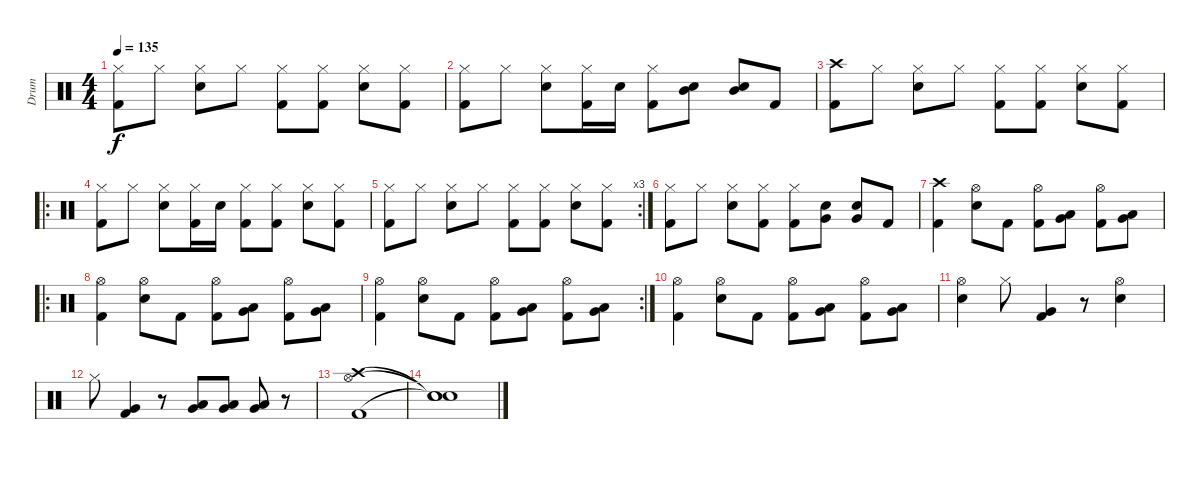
\track ("Drum" "Drum") {instrument percussion}
\staff {score}
\articulation defaults
\ts (4 4)
\tempo 135
\clef neutral
\ks c
("Hi-Hat (closed)" "Kick (hit) 2").8{dy f} "Hi-Hat (closed)".8 ("Hi-Hat (closed)" "Snare (hit) 2").8 "Hi-Hat (closed)".8 ("Hi-Hat (closed)" "Kick (hit) 2").8 ("Hi-Hat (closed)" "Kick (hit) 2").8 ("Hi-Hat (closed)" "Snare (hit) 2").8 ("Hi-Hat (closed)" "Kick (hit) 2").8 |
("Hi-Hat (closed)" "Kick (hit) 2").8 "Hi-Hat (closed)".8 ("Hi-Hat (closed)" "Snare (hit) 2").8 ("Hi-Hat (closed)" "Kick (hit) 2").16 "Snare (hit) 2".16 ("Hi-Hat (closed)" "Kick (hit) 2").8 ("Mid Tom (hit)" "Snare (hit) 2").8 ("Mid Tom (hit)" "Snare (hit) 2").8 "Kick (hit) 2".8 |
("Crash high (hit)" "Kick (hit) 2").8 "Hi-Hat (closed)".8 ("Hi-Hat (closed)" "Snare (hit) 2").8 "Hi-Hat (closed)".8 ("Hi-Hat (closed)" "Kick (hit) 2").8 ("Hi-Hat (closed)" "Kick (hit) 2").8 ("Hi-Hat (closed)" "Snare (hit) 2").8 ("Hi-Hat (closed)" "Kick (hit) 2").8 |
\ro
("Hi-Hat (closed)" "Kick (hit) 2").8 "Hi-Hat (closed)".8 ("Hi-Hat (closed)" "Snare (hit) 2").8 ("Hi-Hat (closed)" "Kick (hit) 2").16 "Snare (hit) 2".16 ("Hi-Hat (closed)" "Kick (hit) 2").8 ("Hi-Hat (closed)" "Kick (hit) 2").8 ("Hi-Hat (closed)" "Snare (hit) 2").8 ("Hi-Hat (closed)" "Kick (hit) 2").8 |
\rc 3
("Hi-Hat (closed)" "Kick (hit) 2").8 "Hi-Hat (closed)".8 ("Hi-Hat (closed)" "Snare (hit) 2").8 "Hi-Hat (closed)".8 ("Hi-Hat (closed)" "Kick (hit) 2").8 ("Hi-Hat (closed)" "Kick (hit) 2").8 ("Hi-Hat (closed)" "Snare (hit) 2").8 ("Hi-Hat (closed)" "Kick (hit) 2").8 |
("Hi-Hat (closed)" "Kick (hit) 2").8 "Hi-Hat (closed)".8 ("Hi-Hat (closed)" "Snare (hit) 2").8 ("Hi-Hat (closed)" "Kick (hit) 2").8 ("Hi-Hat (closed)" "Kick (hit) 2").8 ("Very Low Tom (hit)" "Snare (hit) 2").8 ("Very Low Tom (hit)" "Snare (hit) 2").8 "Kick (hit) 2".8 |
("Crash high (hit)" "Kick (hit) 2").4 ("Hi-Hat (open)" "Snare (hit) 2").8 "Kick (hit) 2".8 ("Hi-Hat (open)" "Kick (hit) 2").8 ("Low Tom (hit)" "Very Low Tom (hit)").8 ("Hi-Hat (open)" "Kick (hit) 2").8 ("Low Tom (hit)" "Very Low Tom (hit)").8 |
\ro
("Hi-Hat (open)" "Kick (hit) 2").4 ("Hi-Hat (open)" "Snare (hit) 2").8 "Kick (hit) 2".8 ("Hi-Hat (open)" "Kick (hit) 2").8 ("Low Tom (hit)" "Very Low Tom (hit)").8 ("Hi-Hat (open)" "Kick (hit) 2").8 ("Low Tom (hit)" "Very Low Tom (hit)").8 |
\rc 2
("Hi-Hat (open)" "Kick (hit) 2").4 ("Hi-Hat (open)" "Snare (hit) 2").8 "Kick (hit) 2".8 ("Hi-Hat (open)" "Kick (hit) 2").8 ("Low Tom (hit)" "Very Low Tom (hit)").8 ("Hi-Hat (open)" "Kick (hit) 2").8 ("Low Tom (hit)" "Very Low Tom (hit)").8 |
("Hi-Hat (open)" "Kick (hit) 2").4 ("Hi-Hat (open)" "Snare (hit) 2").8 "Kick (hit) 2".8 ("Hi-Hat (open)" "Kick (hit) 2").8 ("Low Tom (hit)" "Very Low Tom (hit)").8 ("Hi-Hat (open)" "Kick (hit) 2").8 ("Low Tom (hit)" "Very Low Tom (hit)").8 |
("Hi-Hat (open)" "Snare (hit) 2").4 "Hi-Hat (closed)".8 ("Very Low Tom (hit)" "Kick (hit) 2").4 r.8 ("Hi-Hat (open)" "Snare (hit) 2").4 |
"Hi-Hat (closed)".8 ("Very Low Tom (hit)" "Kick (hit) 2").4 r.8 ("Low Tom (hit)" "Very Low Tom (hit)").8 ("Low Tom (hit)" "Very Low Tom (hit)").8 ("Low Tom (hit)" "Very Low Tom (hit)").8 r.8 |
("Crash high (hit)" "Hi-Hat (open)" "Kick (hit) 2").1 |
("Snare (hit)"{t} "Snare (hit)"{t} "Snare (hit)"{t}).1
